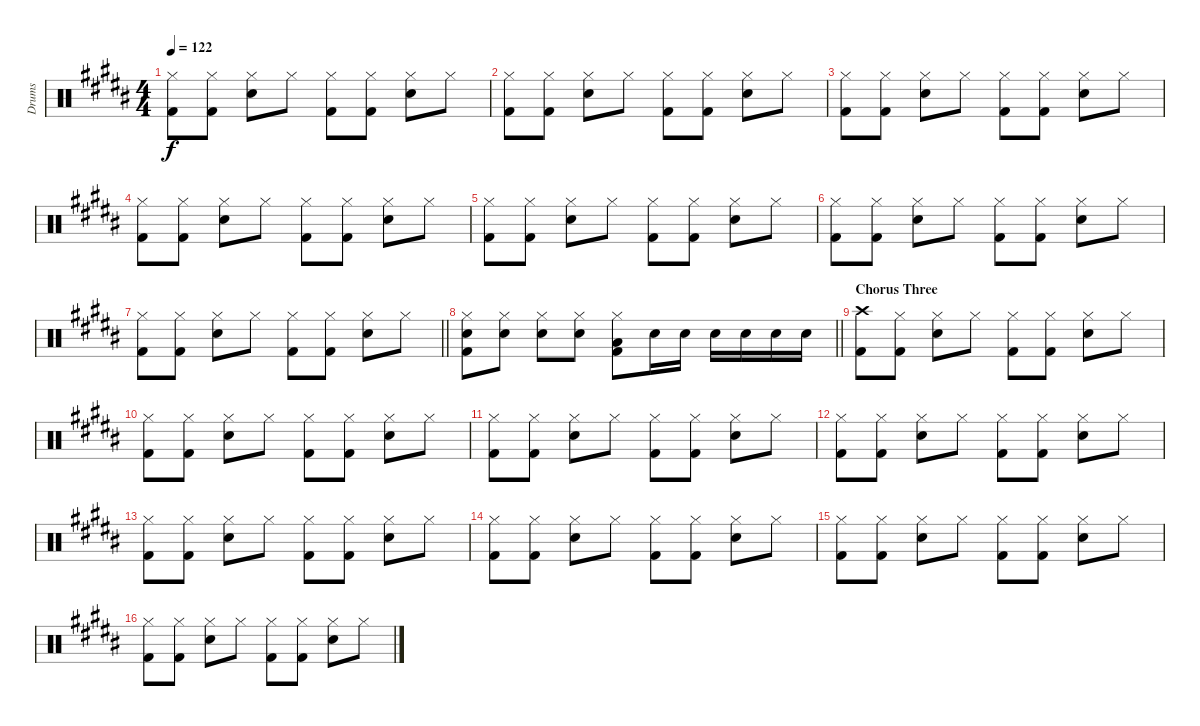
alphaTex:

\track ("Drums" "Drums") {instrument percussion}
\staff {score}
\articulation defaults
\ts (4 4)
\tempo 122
\clef neutral
\ks b
("Hi-Hat (closed)" "Kick (hit) 2").8{dy f} ("Hi-Hat (closed)" "Kick (hit) 2").8 ("Hi-Hat (closed)" "Snare (hit) 2").8 "Hi-Hat (closed)".8 ("Hi-Hat (closed)" "Kick (hit) 2").8 ("Hi-Hat (closed)" "Kick (hit) 2").8 ("Hi-Hat (closed)" "Snare (hit) 2").8 "Hi-Hat (closed)".8 |
("Hi-Hat (closed)" "Kick (hit) 2").8 ("Hi-Hat (closed)" "Kick (hit) 2").8 ("Hi-Hat (closed)" "Snare (hit) 2").8 "Hi-Hat (closed)".8 ("Hi-Hat (closed)" "Kick (hit) 2").8 ("Hi-Hat (closed)" "Kick (hit) 2").8 ("Hi-Hat (closed)" "Snare (hit) 2").8 "Hi-Hat (closed)".8 |
("Hi-Hat (closed)" "Kick (hit) 2").8 ("Hi-Hat (closed)" "Kick (hit) 2").8 ("Hi-Hat (closed)" "Snare (hit) 2").8 "Hi-Hat (closed)".8 ("Hi-Hat (closed)" "Kick (hit) 2").8 ("Hi-Hat (closed)" "Kick (hit) 2").8 ("Hi-Hat (closed)" "Snare (hit) 2").8 "Hi-Hat (closed)".8 |
("Hi-Hat (closed)" "Kick (hit) 2").8 ("Hi-Hat (closed)" "Kick (hit) 2").8 ("Hi-Hat (closed)" "Snare (hit) 2").8 "Hi-Hat (closed)".8 ("Hi-Hat (closed)" "Kick (hit) 2").8 ("Hi-Hat (closed)" "Kick (hit) 2").8 ("Hi-Hat (closed)" "Snare (hit) 2").8 "Hi-Hat (closed)".8 |
("Hi-Hat (closed)" "Kick (hit) 2").8 ("Hi-Hat (closed)" "Kick (hit) 2").8 ("Hi-Hat (closed)" "Snare (hit) 2").8 "Hi-Hat (closed)".8 ("Hi-Hat (closed)" "Kick (hit) 2").8 ("Hi-Hat (closed)" "Kick (hit) 2").8 ("Hi-Hat (closed)" "Snare (hit) 2").8 "Hi-Hat (closed)".8 |
("Hi-Hat (closed)" "Kick (hit) 2").8 ("Hi-Hat (closed)" "Kick (hit) 2").8 ("Hi-Hat (closed)" "Snare (hit) 2").8 "Hi-Hat (closed)".8 ("Hi-Hat (closed)" "Kick (hit) 2").8 ("Hi-Hat (closed)" "Kick (hit) 2").8 ("Hi-Hat (closed)" "Snare (hit) 2").8 "Hi-Hat (closed)".8 |
\barLineRight lightlight
("Hi-Hat (closed)" "Kick (hit) 2").8 ("Hi-Hat (closed)" "Kick (hit) 2").8 ("Hi-Hat (closed)" "Snare (hit) 2").8 "Hi-Hat (closed)".8 ("Hi-Hat (closed)" "Kick (hit) 2").8 ("Hi-Hat (closed)" "Kick (hit) 2").8 ("Hi-Hat (closed)" "Snare (hit) 2").8 "Hi-Hat (closed)".8 |
\barLineRight lightlight
("Hi-Hat (closed)" "Snare (hit) 2" "Kick (hit) 2").8 ("Hi-Hat (closed)" "Snare (hit) 2").8 ("Hi-Hat (closed)" "Snare (hit) 2").8 ("Hi-Hat (closed)" "Snare (hit) 2").8 ("Hi-Hat (closed)" "Low Tom (hit)" "Kick (hit) 2").8 "Snare (hit) 2".16 "Snare (hit) 2".16 "Snare (hit) 2".16 "Snare (hit) 2".16 "Snare (hit) 2".16 "Snare (hit) 2".16 |
\section ("" "Chorus Three")
("Crash high (hit)" "Kick (hit) 2").8 ("Hi-Hat (closed)" "Kick (hit) 2").8 ("Hi-Hat (closed)" "Snare (hit) 2").8 "Hi-Hat (closed)".8 ("Hi-Hat (closed)" "Kick (hit) 2").8 ("Hi-Hat (closed)" "Kick (hit) 2").8 ("Hi-Hat (closed)" "Snare (hit) 2").8 "Hi-Hat (closed)".8 |
("Hi-Hat (closed)" "Kick (hit) 2").8 ("Hi-Hat (closed)" "Kick (hit) 2").8 ("Hi-Hat (closed)" "Snare (hit) 2").8 "Hi-Hat (closed)".8 ("Hi-Hat (closed)" "Kick (hit) 2").8 ("Hi-Hat (closed)" "Kick (hit) 2").8 ("Hi-Hat (closed)" "Snare (hit) 2").8 "Hi-Hat (closed)".8 |
("Hi-Hat (closed)" "Kick (hit) 2").8 ("Hi-Hat (closed)" "Kick (hit) 2").8 ("Hi-Hat (closed)" "Snare (hit) 2").8 "Hi-Hat (closed)".8 ("Hi-Hat (closed)" "Kick (hit) 2").8 ("Hi-Hat (closed)" "Kick (hit) 2").8 ("Hi-Hat (closed)" "Snare (hit) 2").8 "Hi-Hat (closed)".8 |
("Hi-Hat (closed)" "Kick (hit) 2").8 ("Hi-Hat (closed)" "Kick (hit) 2").8 ("Hi-Hat (closed)" "Snare (hit) 2").8 "Hi-Hat (closed)".8 ("Hi-Hat (closed)" "Kick (hit) 2").8 ("Hi-Hat (closed)" "Kick (hit) 2").8 ("Hi-Hat (closed)" "Snare (hit) 2").8 "Hi-Hat (closed)".8 |
("Hi-Hat (closed)" "Kick (hit) 2").8 ("Hi-Hat (closed)" "Kick (hit) 2").8 ("Hi-Hat (closed)" "Snare (hit) 2").8 "Hi-Hat (closed)".8 ("Hi-Hat (closed)" "Kick (hit) 2").8 ("Hi-Hat (closed)" "Kick (hit) 2").8 ("Hi-Hat (closed)" "Snare (hit) 2").8 "Hi-Hat (closed)".8 |
("Hi-Hat (closed)" "Kick (hit) 2").8 ("Hi-Hat (closed)" "Kick (hit) 2").8 ("Hi-Hat (closed)" "Snare (hit) 2").8 "Hi-Hat (closed)".8 ("Hi-Hat (closed)" "Kick (hit) 2").8 ("Hi-Hat (closed)" "Kick (hit) 2").8 ("Hi-Hat (closed)" "Snare (hit) 2").8 "Hi-Hat (closed)".8 |
("Hi-Hat (closed)" "Kick (hit) 2").8 ("Hi-Hat (closed)" "Kick (hit) 2").8 ("Hi-Hat (closed)" "Snare (hit) 2").8 "Hi-Hat (closed)".8 ("Hi-Hat (closed)" "Kick (hit) 2").8 ("Hi-Hat (closed)" "Kick (hit) 2").8 ("Hi-Hat (closed)" "Snare (hit) 2").8 "Hi-Hat (closed)".8 |
("Hi-Hat (closed)" "Kick (hit) 2").8 ("Hi-Hat (closed)" "Kick (hit) 2").8 ("Hi-Hat (closed)" "Snare (hit) 2").8 "Hi-Hat (closed)".8 ("Hi-Hat (closed)" "Kick (hit) 2").8 ("Hi-Hat (closed)" "Kick (hit) 2").8 ("Hi-Hat (closed)" "Snare (hit) 2").8 "Hi-Hat (closed)".8
